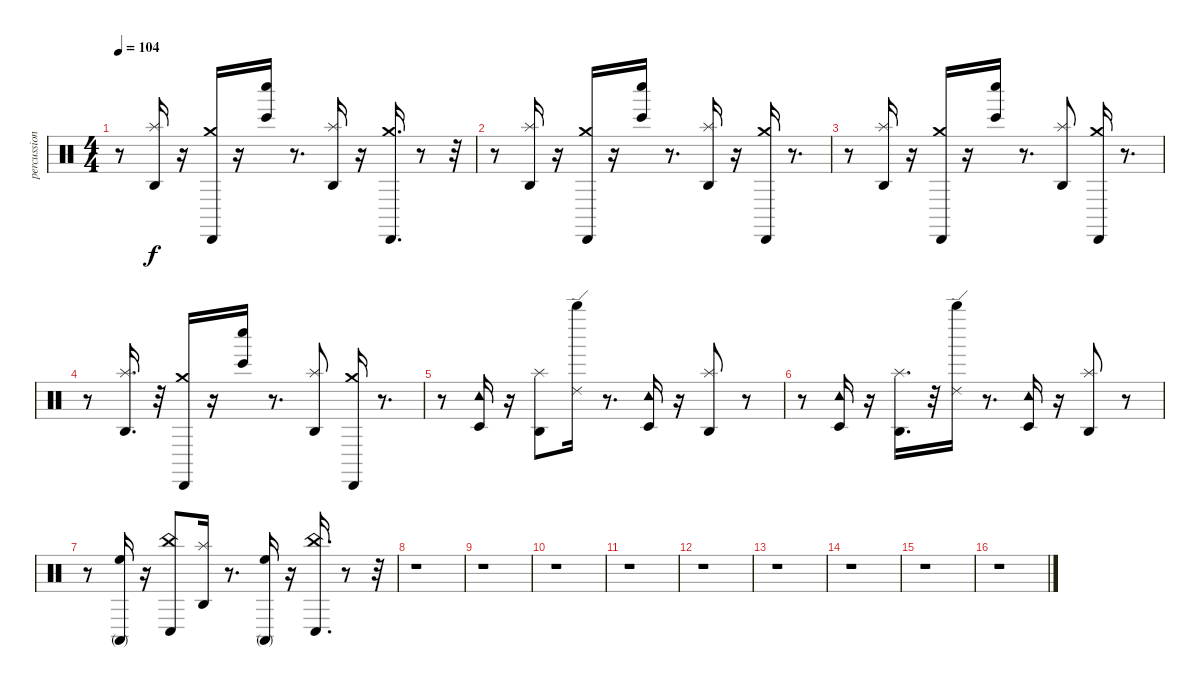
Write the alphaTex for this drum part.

\track ("percussion" "percussion") {instrument percussion}
\staff {score}
\articulation defaults
\ts (4 4)
\tempo 104
\clef neutral
\ks c
r.8{dy f} ("Agogo high (hit)" "Splash (hit)").16 r.16 ("Cabasa (hit)" "Crash medium (hit)").16 r.16 ("Whistle low (hit)" "Bongo High (hit)").16 r.8{d} ("Agogo high (hit)" "Splash (hit)").16 r.16 ("Cabasa (hit)" "Crash medium (hit)").16{d} r.8 r.32 |
r.8 ("Agogo high (hit)" "Splash (hit)").16 r.16 ("Cabasa (hit)" "Crash medium (hit)").16 r.16 ("Whistle low (hit)" "Bongo High (hit)").16 r.8{d} ("Agogo high (hit)" "Splash (hit)").16 r.16 ("Cabasa (hit)" "Crash medium (hit)").16 r.8{d} |
r.8 ("Agogo high (hit)" "Splash (hit)").16 r.16 ("Cabasa (hit)" "Crash medium (hit)").16 r.16 ("Whistle low (hit)" "Bongo High (hit)").16 r.8{d} ("Agogo high (hit)" "Splash (hit)").8 ("Cabasa (hit)" "Crash medium (hit)").16 r.8{d} |
r.8 ("Agogo high (hit)" "Splash (hit)").16{d} r.32 ("Cabasa (hit)" "Crash medium (hit)").16 r.16 ("Whistle low (hit)" "Bongo High (hit)").16 r.8{d} ("Agogo high (hit)" "Splash (hit)").8 ("Cabasa (hit)" "Crash medium (hit)").16 r.8{d} |
r.8 ("Timbale low (hit)" "Tambourine (hit)").16 r.16 ("Agogo high (hit)" "Splash (hit)").8 ("Whistle high (hit)" "Ride (edge) 2").16 r.8{d} ("Timbale low (hit)" "Tambourine (hit)").16 r.16 ("Agogo high (hit)" "Splash (hit)").8 r.8 |
r.8 ("Timbale low (hit)" "Tambourine (hit)").16 r.16 ("Agogo high (hit)" "Splash (hit)").16{d} r.32 ("Whistle high (hit)" "Ride (edge) 2").16 r.8{d} ("Timbale low (hit)" "Tambourine (hit)").16 r.16 ("Agogo high (hit)" "Splash (hit)").8 r.8 |
r.8 ("Conga high (mute)" "High Floor Tom (hit)").16 r.16 ("Conga low (hit)" "China (hit)").8 ("Agogo high (hit)" "Splash (hit)").16 r.8{d} ("Conga high (mute)" "High Floor Tom (hit)").16 r.16 ("Conga low (hit)" "China (hit)").16{d} r.8 r.32 |
r.1 |
r.1 |
r.1 |
r.1 |
r.1 |
r.1 |
r.1 |
r.1 |
r.1
